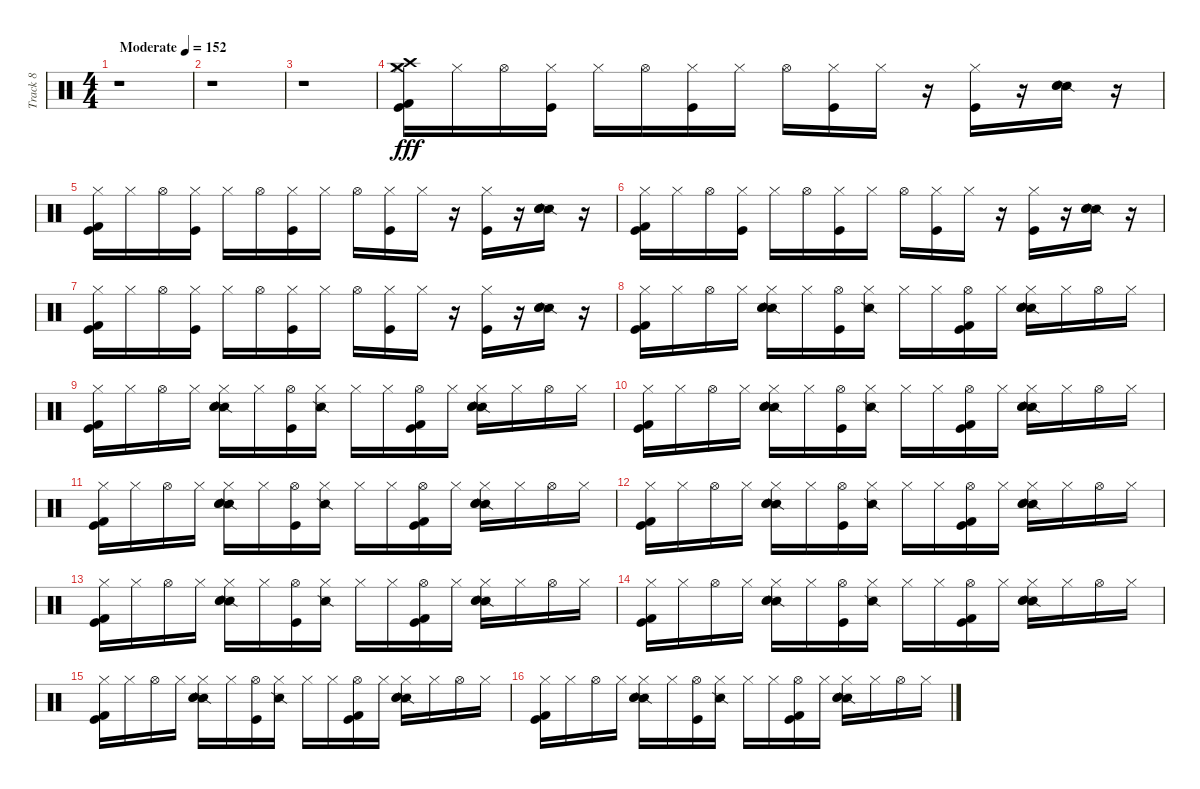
\track ("Track 8" "Track 8") {instrument percussion}
\staff {score}
\articulation defaults
\ts (4 4)
\tempo (152 "Moderate")
\clef neutral
\ks c
r.1{dy fff} |
r.1 |
r.1 |
("Hi-Hat (closed)" "Crash high (hit)" "Crash medium (hit)" "Kick (hit)" "Kick (hit) 2").16 "Hi-Hat (closed)".16 "Hi-Hat (open)".16 ("Hi-Hat (closed)" "Kick (hit)").16 "Hi-Hat (closed)".16 "Hi-Hat (open)".16 ("Hi-Hat (closed)" "Kick (hit)").16 "Hi-Hat (closed)".16 "Hi-Hat (open)".16 ("Hi-Hat (closed)" "Kick (hit)").16 "Hi-Hat (closed)".16 r.16 ("Hi-Hat (closed)" "Kick (hit)").16 r.16 ("Snare (side stick) 2" "Snare (hit) 2" "Electric Snare (hit)").16 r.16 |
("Hi-Hat (closed)" "Kick (hit)" "Kick (hit) 2").16 "Hi-Hat (closed)".16 "Hi-Hat (open)".16 ("Hi-Hat (closed)" "Kick (hit)").16 "Hi-Hat (closed)".16 "Hi-Hat (open)".16 ("Hi-Hat (closed)" "Kick (hit)").16 "Hi-Hat (closed)".16 "Hi-Hat (open)".16 ("Hi-Hat (closed)" "Kick (hit)").16 "Hi-Hat (closed)".16 r.16 ("Hi-Hat (closed)" "Kick (hit)").16 r.16 ("Snare (side stick) 2" "Snare (hit) 2" "Electric Snare (hit)").16 r.16 |
("Hi-Hat (closed)" "Kick (hit)" "Kick (hit) 2").16 "Hi-Hat (closed)".16 "Hi-Hat (open)".16 ("Hi-Hat (closed)" "Kick (hit)").16 "Hi-Hat (closed)".16 "Hi-Hat (open)".16 ("Hi-Hat (closed)" "Kick (hit)").16 "Hi-Hat (closed)".16 "Hi-Hat (open)".16 ("Hi-Hat (closed)" "Kick (hit)").16 "Hi-Hat (closed)".16 r.16 ("Hi-Hat (closed)" "Kick (hit)").16 r.16 ("Snare (side stick) 2" "Snare (hit) 2" "Electric Snare (hit)").16 r.16 |
("Hi-Hat (closed)" "Kick (hit)" "Kick (hit) 2").16 "Hi-Hat (closed)".16 "Hi-Hat (open)".16 ("Hi-Hat (closed)" "Kick (hit)").16 "Hi-Hat (closed)".16 "Hi-Hat (open)".16 ("Hi-Hat (closed)" "Kick (hit)").16 "Hi-Hat (closed)".16 "Hi-Hat (open)".16 ("Hi-Hat (closed)" "Kick (hit)").16 "Hi-Hat (closed)".16 r.16 ("Hi-Hat (closed)" "Kick (hit)").16 r.16 ("Snare (side stick) 2" "Snare (hit) 2" "Electric Snare (hit)").16 r.16 |
("Hi-Hat (closed)" "Kick (hit)" "Kick (hit) 2").16 "Hi-Hat (closed)".16 "Hi-Hat (open)".16 "Hi-Hat (closed)".16 ("Hi-Hat (closed)" "Snare (side stick) 2" "Snare (hit) 2" "Electric Snare (hit)").16 "Hi-Hat (closed)".16 ("Hi-Hat (open)" "Kick (hit)").16 ("Hi-Hat (closed)" "Snare (side stick) 2").16 "Hi-Hat (closed)".16 "Hi-Hat (closed)".16 ("Hi-Hat (open)" "Kick (hit)" "Kick (hit) 2").16 "Hi-Hat (closed)".16 ("Hi-Hat (closed)" "Snare (side stick) 2" "Snare (hit) 2" "Electric Snare (hit)").16 "Hi-Hat (closed)".16 "Hi-Hat (open)".16 "Hi-Hat (closed)".16 |
("Hi-Hat (closed)" "Kick (hit)" "Kick (hit) 2").16 "Hi-Hat (closed)".16 "Hi-Hat (open)".16 "Hi-Hat (closed)".16 ("Hi-Hat (closed)" "Snare (side stick) 2" "Snare (hit) 2" "Electric Snare (hit)").16 "Hi-Hat (closed)".16 ("Hi-Hat (open)" "Kick (hit)").16 ("Hi-Hat (closed)" "Snare (side stick) 2").16 "Hi-Hat (closed)".16 "Hi-Hat (closed)".16 ("Hi-Hat (open)" "Kick (hit)" "Kick (hit) 2").16 "Hi-Hat (closed)".16 ("Hi-Hat (closed)" "Snare (side stick) 2" "Snare (hit) 2" "Electric Snare (hit)").16 "Hi-Hat (closed)".16 "Hi-Hat (open)".16 "Hi-Hat (closed)".16 |
("Hi-Hat (closed)" "Kick (hit)" "Kick (hit) 2").16 "Hi-Hat (closed)".16 "Hi-Hat (open)".16 "Hi-Hat (closed)".16 ("Hi-Hat (closed)" "Snare (side stick) 2" "Snare (hit) 2" "Electric Snare (hit)").16 "Hi-Hat (closed)".16 ("Hi-Hat (open)" "Kick (hit)").16 ("Hi-Hat (closed)" "Snare (side stick) 2").16 "Hi-Hat (closed)".16 "Hi-Hat (closed)".16 ("Hi-Hat (open)" "Kick (hit)" "Kick (hit) 2").16 "Hi-Hat (closed)".16 ("Hi-Hat (closed)" "Snare (side stick) 2" "Snare (hit) 2" "Electric Snare (hit)").16 "Hi-Hat (closed)".16 "Hi-Hat (open)".16 "Hi-Hat (closed)".16 |
("Hi-Hat (closed)" "Kick (hit)" "Kick (hit) 2").16 "Hi-Hat (closed)".16 "Hi-Hat (open)".16 "Hi-Hat (closed)".16 ("Hi-Hat (closed)" "Snare (side stick) 2" "Snare (hit) 2" "Electric Snare (hit)").16 "Hi-Hat (closed)".16 ("Hi-Hat (open)" "Kick (hit)").16 ("Hi-Hat (closed)" "Snare (side stick) 2").16 "Hi-Hat (closed)".16 "Hi-Hat (closed)".16 ("Hi-Hat (open)" "Kick (hit)" "Kick (hit) 2").16 "Hi-Hat (closed)".16 ("Hi-Hat (closed)" "Snare (side stick) 2" "Snare (hit) 2" "Electric Snare (hit)").16 "Hi-Hat (closed)".16 "Hi-Hat (open)".16 "Hi-Hat (closed)".16 |
("Hi-Hat (closed)" "Kick (hit)" "Kick (hit) 2").16 "Hi-Hat (closed)".16 "Hi-Hat (open)".16 "Hi-Hat (closed)".16 ("Hi-Hat (closed)" "Snare (side stick) 2" "Snare (hit) 2" "Electric Snare (hit)").16 "Hi-Hat (closed)".16 ("Hi-Hat (open)" "Kick (hit)").16 ("Hi-Hat (closed)" "Snare (side stick) 2").16 "Hi-Hat (closed)".16 "Hi-Hat (closed)".16 ("Hi-Hat (open)" "Kick (hit)" "Kick (hit) 2").16 "Hi-Hat (closed)".16 ("Hi-Hat (closed)" "Snare (side stick) 2" "Snare (hit) 2" "Electric Snare (hit)").16 "Hi-Hat (closed)".16 "Hi-Hat (open)".16 "Hi-Hat (closed)".16 |
("Hi-Hat (closed)" "Kick (hit)" "Kick (hit) 2").16 "Hi-Hat (closed)".16 "Hi-Hat (open)".16 "Hi-Hat (closed)".16 ("Hi-Hat (closed)" "Snare (side stick) 2" "Snare (hit) 2" "Electric Snare (hit)").16 "Hi-Hat (closed)".16 ("Hi-Hat (open)" "Kick (hit)").16 ("Hi-Hat (closed)" "Snare (side stick) 2").16 "Hi-Hat (closed)".16 "Hi-Hat (closed)".16 ("Hi-Hat (open)" "Kick (hit)" "Kick (hit) 2").16 "Hi-Hat (closed)".16 ("Hi-Hat (closed)" "Snare (side stick) 2" "Snare (hit) 2" "Electric Snare (hit)").16 "Hi-Hat (closed)".16 "Hi-Hat (open)".16 "Hi-Hat (closed)".16 |
("Hi-Hat (closed)" "Kick (hit)" "Kick (hit) 2").16 "Hi-Hat (closed)".16 "Hi-Hat (open)".16 "Hi-Hat (closed)".16 ("Hi-Hat (closed)" "Snare (side stick) 2" "Snare (hit) 2" "Electric Snare (hit)").16 "Hi-Hat (closed)".16 ("Hi-Hat (open)" "Kick (hit)").16 ("Hi-Hat (closed)" "Snare (side stick) 2").16 "Hi-Hat (closed)".16 "Hi-Hat (closed)".16 ("Hi-Hat (open)" "Kick (hit)" "Kick (hit) 2").16 "Hi-Hat (closed)".16 ("Hi-Hat (closed)" "Snare (side stick) 2" "Snare (hit) 2" "Electric Snare (hit)").16 "Hi-Hat (closed)".16 "Hi-Hat (open)".16 "Hi-Hat (closed)".16 |
("Hi-Hat (closed)" "Kick (hit)" "Kick (hit) 2").16 "Hi-Hat (closed)".16 "Hi-Hat (open)".16 "Hi-Hat (closed)".16 ("Hi-Hat (closed)" "Snare (side stick) 2" "Snare (hit) 2" "Electric Snare (hit)").16 "Hi-Hat (closed)".16 ("Hi-Hat (open)" "Kick (hit)").16 ("Hi-Hat (closed)" "Snare (side stick) 2").16 "Hi-Hat (closed)".16 "Hi-Hat (closed)".16 ("Hi-Hat (open)" "Kick (hit)" "Kick (hit) 2").16 "Hi-Hat (closed)".16 ("Hi-Hat (closed)" "Snare (side stick) 2" "Snare (hit) 2" "Electric Snare (hit)").16 "Hi-Hat (closed)".16 "Hi-Hat (open)".16 "Hi-Hat (closed)".16 |
("Hi-Hat (closed)" "Kick (hit)" "Kick (hit) 2").16 "Hi-Hat (closed)".16 "Hi-Hat (open)".16 "Hi-Hat (closed)".16 ("Hi-Hat (closed)" "Snare (side stick) 2" "Snare (hit) 2" "Electric Snare (hit)").16 "Hi-Hat (closed)".16 ("Hi-Hat (open)" "Kick (hit)").16 ("Hi-Hat (closed)" "Snare (side stick) 2").16 "Hi-Hat (closed)".16 "Hi-Hat (closed)".16 ("Hi-Hat (open)" "Kick (hit)" "Kick (hit) 2").16 "Hi-Hat (closed)".16 ("Hi-Hat (closed)" "Snare (side stick) 2" "Snare (hit) 2" "Electric Snare (hit)").16 "Hi-Hat (closed)".16 "Hi-Hat (open)".16 "Hi-Hat (closed)".16
